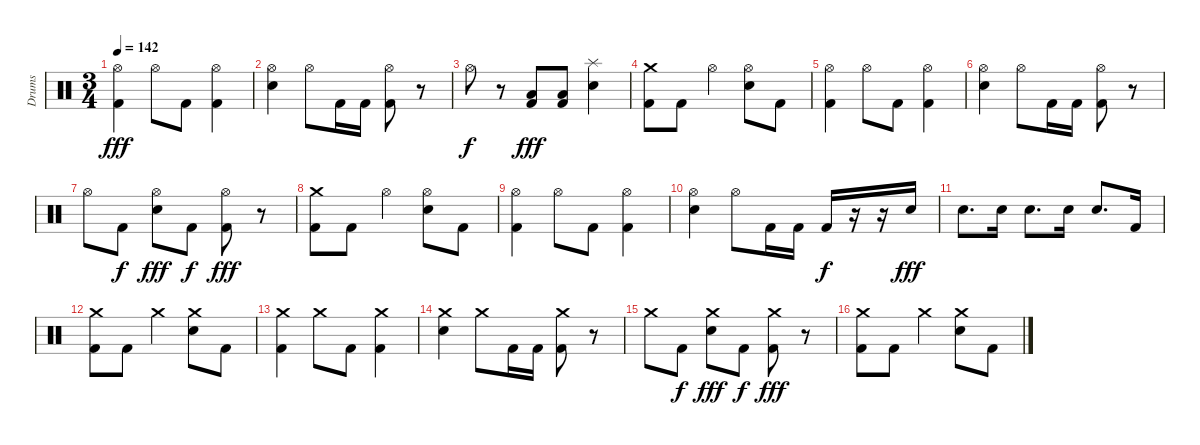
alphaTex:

\track ("Drums" "Drums") {instrument percussion}
\staff {score}
\articulation defaults
\ts (3 4)
\tempo 142
\clef neutral
\ks c
("Hi-Hat (open)" "Kick (hit) 2").4{dy fff} "Hi-Hat (open)".8 "Kick (hit) 2".8 ("Hi-Hat (open)" "Kick (hit) 2").4 |
("Hi-Hat (open)" "Electric Snare (hit)").4 "Hi-Hat (open)".8 "Kick (hit) 2".16 "Kick (hit) 2".16 ("Hi-Hat (open)" "Kick (hit) 2").8 r.8 |
"Hi-Hat (open)".8{dy f} r.8 ("Low Floor Tom (hit)" "Kick (hit) 2").8{dy fff} ("Low Floor Tom (hit)" "Kick (hit) 2").8 ("Splash (hit)" "Electric Snare (hit)").4 |
("Crash medium (hit)" "Kick (hit) 2").8 "Kick (hit) 2".8 "Hi-Hat (open)".4 ("Hi-Hat (open)" "Electric Snare (hit)").8 "Kick (hit) 2".8 |
("Hi-Hat (open)" "Kick (hit) 2").4 "Hi-Hat (open)".8 "Kick (hit) 2".8 ("Hi-Hat (open)" "Kick (hit) 2").4 |
("Hi-Hat (open)" "Electric Snare (hit)").4 "Hi-Hat (open)".8 "Kick (hit) 2".16 "Kick (hit) 2".16 ("Hi-Hat (open)" "Kick (hit) 2").8 r.8 |
"Hi-Hat (open)".8 "Kick (hit) 2".8{dy f} ("Hi-Hat (open)" "Electric Snare (hit)").8{dy fff} "Kick (hit) 2".8{dy f} ("Hi-Hat (open)" "Kick (hit) 2").8{dy fff} r.8 |
("Crash medium (hit)" "Kick (hit) 2").8 "Kick (hit) 2".8 "Hi-Hat (open)".4 ("Hi-Hat (open)" "Electric Snare (hit)").8 "Kick (hit) 2".8 |
("Hi-Hat (open)" "Kick (hit) 2").4 "Hi-Hat (open)".8 "Kick (hit) 2".8 ("Hi-Hat (open)" "Kick (hit) 2").4 |
("Hi-Hat (open)" "Electric Snare (hit)").4 "Hi-Hat (open)".8 "Kick (hit) 2".16 "Kick (hit) 2".16 "Kick (hit) 2".16{dy f} r.16 r.16 "Electric Snare (hit)".16{dy fff} |
"Electric Snare (hit)".8{d} "Electric Snare (hit)".16 "Electric Snare (hit)".8{d} "Electric Snare (hit)".16 "Electric Snare (hit)".8{d} "Kick (hit) 2".16 |
("Crash medium (hit)" "Kick (hit) 2").8 "Kick (hit) 2".8 "Crash medium (hit)".4 ("Crash medium (hit)" "Electric Snare (hit)").8 "Kick (hit) 2".8 |
("Crash medium (hit)" "Kick (hit) 2").4 "Crash medium (hit)".8 "Kick (hit) 2".8 ("Crash medium (hit)" "Kick (hit) 2").4 |
("Crash medium (hit)" "Electric Snare (hit)").4 "Crash medium (hit)".8 "Kick (hit) 2".16 "Kick (hit) 2".16 ("Crash medium (hit)" "Kick (hit) 2").8 r.8 |
"Crash medium (hit)".8 "Kick (hit) 2".8{dy f} ("Crash medium (hit)" "Electric Snare (hit)").8{dy fff} "Kick (hit) 2".8{dy f} ("Crash medium (hit)" "Kick (hit) 2").8{dy fff} r.8 |
("Crash medium (hit)" "Kick (hit) 2").8 "Kick (hit) 2".8 "Crash medium (hit)".4 ("Crash medium (hit)" "Electric Snare (hit)").8 "Kick (hit) 2".8
